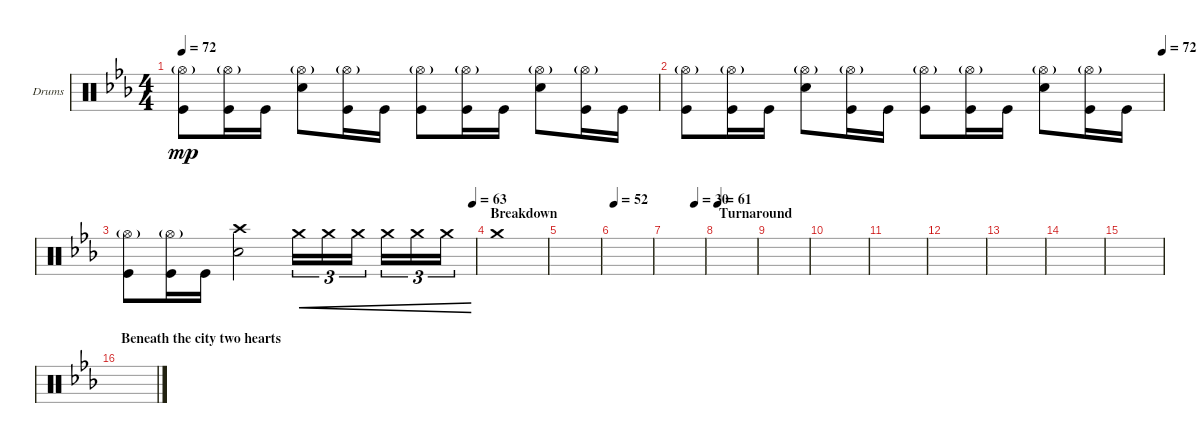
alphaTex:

\defaultSystemsLayout 4
\bracketExtendMode groupsimilarinstruments
\firstSystemTrackNameOrientation horizontal
\otherSystemsTrackNameOrientation horizontal
\track ("Drumkit" "Drums") {instrument percussion}
\staff {score}
\articulation defaults
\ts (4 4)
\tempo 72
\clef neutral
\ks eb
("Kick (hit)" "Hi-Hat (open)"{g}).8{dy mp} ("Kick (hit)" "Hi-Hat (open)"{g}).16 "Kick (hit)".16 ("Snare (hit) 2" "Hi-Hat (open)"{g}).8 ("Kick (hit)" "Hi-Hat (open)"{g}).16 "Kick (hit)".16 ("Kick (hit)" "Hi-Hat (open)"{g}).8 ("Kick (hit)" "Hi-Hat (open)"{g}).16 "Kick (hit)".16 ("Snare (hit) 2" "Hi-Hat (open)"{g}).8 ("Kick (hit)" "Hi-Hat (open)"{g}).16 "Kick (hit)".16 |
\tempo (72 1)
("Kick (hit)" "Hi-Hat (open)"{g}).8 ("Kick (hit)" "Hi-Hat (open)"{g}).16 "Kick (hit)".16 ("Snare (hit) 2" "Hi-Hat (open)"{g}).8 ("Kick (hit)" "Hi-Hat (open)"{g}).16 "Kick (hit)".16 ("Kick (hit)" "Hi-Hat (open)"{g}).8 ("Kick (hit)" "Hi-Hat (open)"{g}).16 "Kick (hit)".16 ("Snare (hit) 2" "Hi-Hat (open)"{g}).8 ("Kick (hit)" "Hi-Hat (open)"{g}).16 "Kick (hit)".16 |
\tempo (63 0.99375)
("Kick (hit)" "Hi-Hat (open)"{g}).8 ("Kick (hit)" "Hi-Hat (open)"{g}).16 "Kick (hit)".16 ("Snare (hit) 2" "Crash high (hit)").2 "Crash medium (hit)".16{tu (3 2) cre} "Crash medium (hit)".16{tu (3 2) cre} "Crash medium (hit)".16{tu (3 2) cre} "Crash medium (hit)".16{tu (3 2) cre} "Crash medium (hit)".16{tu (3 2) cre} "Crash medium (hit)".16{tu (3 2) cre} |
\section ("" "Breakdown")
"Crash medium (hit)".1 |
|
\tempo (52 0.0125)
|
\tempo (30 0.75625)
|
\section ("" "Turnaround")
\tempo 61
|
|
|
|
|
|
|
|
\section ("" "Beneath the city two hearts")
